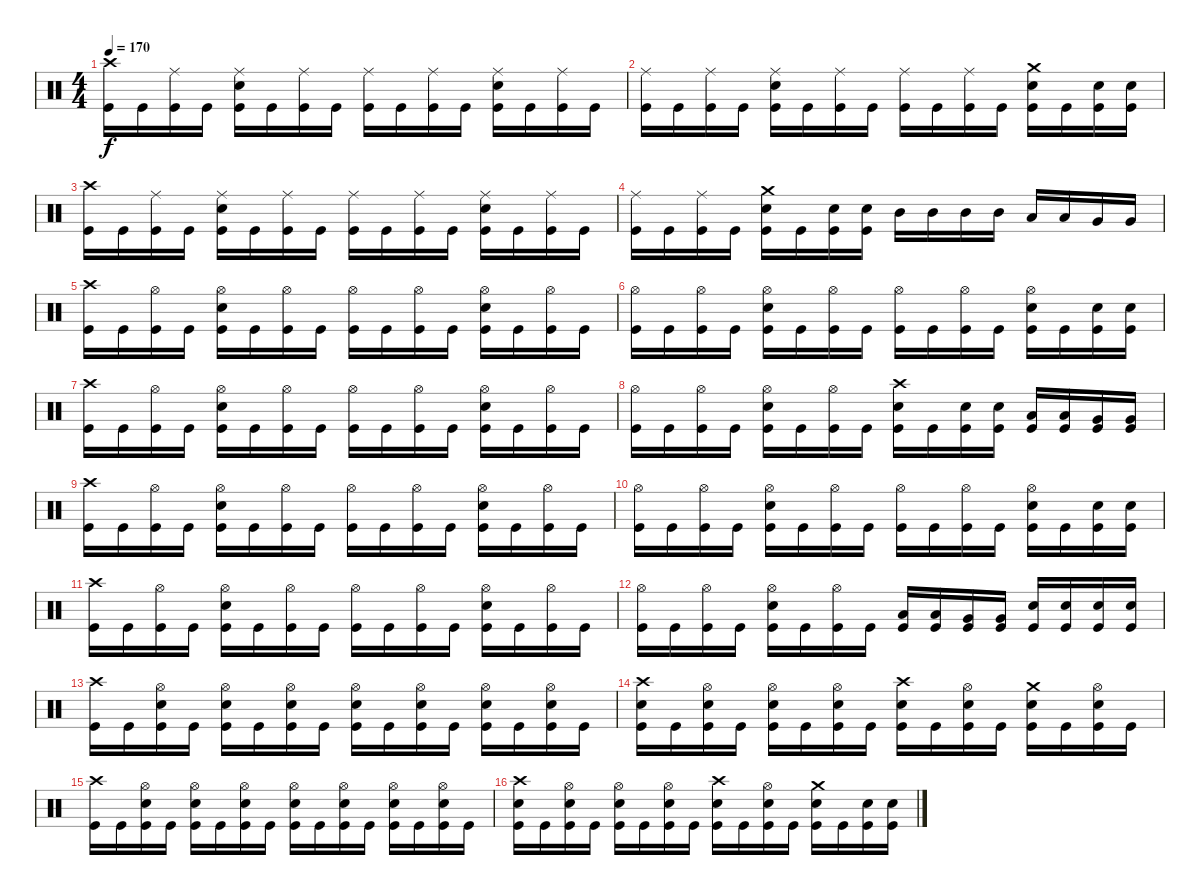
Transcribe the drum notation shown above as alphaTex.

\track "" {instrument percussion}
\staff {score}
\articulation defaults
\ts (4 4)
\tempo 170
\clef neutral
\ks c
("Crash high (hit)" "Kick (hit)").16{dy f} "Kick (hit)".16 ("Ride (middle)" "Kick (hit)").16 "Kick (hit)".16 ("Snare (hit) 2" "Ride (middle)" "Kick (hit)").16 "Kick (hit)".16 ("Ride (middle)" "Kick (hit)").16 "Kick (hit)".16 ("Ride (middle)" "Kick (hit)").16 "Kick (hit)".16 ("Ride (middle)" "Kick (hit)").16 "Kick (hit)".16 ("Snare (hit) 2" "Ride (middle)" "Kick (hit)").16 "Kick (hit)".16 ("Ride (middle)" "Kick (hit)").16 "Kick (hit)".16 |
("Ride (middle)" "Kick (hit)").16 "Kick (hit)".16 ("Ride (middle)" "Kick (hit)").16 "Kick (hit)".16 ("Snare (hit) 2" "Ride (middle)" "Kick (hit)").16 "Kick (hit)".16 ("Ride (middle)" "Kick (hit)").16 "Kick (hit)".16 ("Ride (middle)" "Kick (hit)").16 "Kick (hit)".16 ("Ride (middle)" "Kick (hit)").16 "Kick (hit)".16 ("Snare (hit) 2" "Crash medium (hit)" "Kick (hit)").16 "Kick (hit)".16 ("Snare (hit) 2" "Kick (hit)").16 ("Snare (hit) 2" "Kick (hit)").16 |
("Crash high (hit)" "Kick (hit)").16 "Kick (hit)".16 ("Ride (middle)" "Kick (hit)").16 "Kick (hit)".16 ("Snare (hit) 2" "Ride (middle)" "Kick (hit)").16 "Kick (hit)".16 ("Ride (middle)" "Kick (hit)").16 "Kick (hit)".16 ("Ride (middle)" "Kick (hit)").16 "Kick (hit)".16 ("Ride (middle)" "Kick (hit)").16 "Kick (hit)".16 ("Snare (hit) 2" "Ride (middle)" "Kick (hit)").16 "Kick (hit)".16 ("Ride (middle)" "Kick (hit)").16 "Kick (hit)".16 |
("Ride (middle)" "Kick (hit)").16 "Kick (hit)".16 ("Ride (middle)" "Kick (hit)").16 "Kick (hit)".16 ("Snare (hit) 2" "Crash medium (hit)" "Kick (hit)").16 "Kick (hit)".16 ("Snare (hit) 2" "Kick (hit)").16 ("Snare (hit) 2" "Kick (hit)").16 "Mid Tom (hit)".16 "Mid Tom (hit)".16 "Mid Tom (hit)".16 "Mid Tom (hit)".16 "Low Tom (hit)".16 "Low Tom (hit)".16 "Very Low Tom (hit)".16 "Very Low Tom (hit)".16 |
("Crash high (hit)" "Kick (hit)").16 "Kick (hit)".16 ("Hi-Hat (open)" "Kick (hit)").16 "Kick (hit)".16 ("Hi-Hat (open)" "Snare (hit) 2" "Kick (hit)").16 "Kick (hit)".16 ("Hi-Hat (open)" "Kick (hit)").16 "Kick (hit)".16 ("Hi-Hat (open)" "Kick (hit)").16 "Kick (hit)".16 ("Hi-Hat (open)" "Kick (hit)").16 "Kick (hit)".16 ("Snare (hit) 2" "Hi-Hat (open)" "Kick (hit)").16 "Kick (hit)".16 ("Hi-Hat (open)" "Kick (hit)").16 "Kick (hit)".16 |
("Hi-Hat (open)" "Kick (hit)").16 "Kick (hit)".16 ("Hi-Hat (open)" "Kick (hit)").16 "Kick (hit)".16 ("Snare (hit) 2" "Hi-Hat (open)" "Kick (hit)").16 "Kick (hit)".16 ("Hi-Hat (open)" "Kick (hit)").16 "Kick (hit)".16 ("Hi-Hat (open)" "Kick (hit)").16 "Kick (hit)".16 ("Hi-Hat (open)" "Kick (hit)").16 "Kick (hit)".16 ("Snare (hit) 2" "Hi-Hat (open)" "Kick (hit)").16 "Kick (hit)".16 ("Snare (hit) 2" "Kick (hit)").16 ("Snare (hit) 2" "Kick (hit)").16 |
("Crash high (hit)" "Kick (hit)").16 "Kick (hit)".16 ("Hi-Hat (open)" "Kick (hit)").16 "Kick (hit)".16 ("Hi-Hat (open)" "Snare (hit) 2" "Kick (hit)").16 "Kick (hit)".16 ("Hi-Hat (open)" "Kick (hit)").16 "Kick (hit)".16 ("Hi-Hat (open)" "Kick (hit)").16 "Kick (hit)".16 ("Hi-Hat (open)" "Kick (hit)").16 "Kick (hit)".16 ("Snare (hit) 2" "Hi-Hat (open)" "Kick (hit)").16 "Kick (hit)".16 ("Hi-Hat (open)" "Kick (hit)").16 "Kick (hit)".16 |
("Hi-Hat (open)" "Kick (hit)").16 "Kick (hit)".16 ("Hi-Hat (open)" "Kick (hit)").16 "Kick (hit)".16 ("Hi-Hat (open)" "Snare (hit) 2" "Kick (hit)").16 "Kick (hit)".16 ("Hi-Hat (open)" "Kick (hit)").16 "Kick (hit)".16 ("Kick (hit)" "Crash high (hit)" "Snare (hit) 2").16 "Kick (hit)".16 ("Kick (hit)" "Snare (hit) 2").16 ("Snare (hit) 2" "Kick (hit)").16 ("Low Tom (hit)" "Kick (hit)").16 ("Low Tom (hit)" "Kick (hit)").16 ("Kick (hit)" "Very Low Tom (hit)").16 ("Very Low Tom (hit)" "Kick (hit)").16 |
("Crash high (hit)" "Kick (hit)").16 "Kick (hit)".16 ("Hi-Hat (open)" "Kick (hit)").16 "Kick (hit)".16 ("Hi-Hat (open)" "Snare (hit) 2" "Kick (hit)").16 "Kick (hit)".16 ("Hi-Hat (open)" "Kick (hit)").16 "Kick (hit)".16 ("Hi-Hat (open)" "Kick (hit)").16 "Kick (hit)".16 ("Hi-Hat (open)" "Kick (hit)").16 "Kick (hit)".16 ("Snare (hit) 2" "Hi-Hat (open)" "Kick (hit)").16 "Kick (hit)".16 ("Hi-Hat (open)" "Kick (hit)").16 "Kick (hit)".16 |
("Hi-Hat (open)" "Kick (hit)").16 "Kick (hit)".16 ("Hi-Hat (open)" "Kick (hit)").16 "Kick (hit)".16 ("Snare (hit) 2" "Hi-Hat (open)" "Kick (hit)").16 "Kick (hit)".16 ("Hi-Hat (open)" "Kick (hit)").16 "Kick (hit)".16 ("Hi-Hat (open)" "Kick (hit)").16 "Kick (hit)".16 ("Hi-Hat (open)" "Kick (hit)").16 "Kick (hit)".16 ("Snare (hit) 2" "Hi-Hat (open)" "Kick (hit)").16 "Kick (hit)".16 ("Snare (hit) 2" "Kick (hit)").16 ("Snare (hit) 2" "Kick (hit)").16 |
("Crash high (hit)" "Kick (hit)").16 "Kick (hit)".16 ("Hi-Hat (open)" "Kick (hit)").16 "Kick (hit)".16 ("Hi-Hat (open)" "Snare (hit) 2" "Kick (hit)").16 "Kick (hit)".16 ("Hi-Hat (open)" "Kick (hit)").16 "Kick (hit)".16 ("Hi-Hat (open)" "Kick (hit)").16 "Kick (hit)".16 ("Hi-Hat (open)" "Kick (hit)").16 "Kick (hit)".16 ("Snare (hit) 2" "Hi-Hat (open)" "Kick (hit)").16 "Kick (hit)".16 ("Hi-Hat (open)" "Kick (hit)").16 "Kick (hit)".16 |
("Hi-Hat (open)" "Kick (hit)").16 "Kick (hit)".16 ("Hi-Hat (open)" "Kick (hit)").16 "Kick (hit)".16 ("Hi-Hat (open)" "Snare (hit) 2" "Kick (hit)").16 "Kick (hit)".16 ("Hi-Hat (open)" "Kick (hit)").16 "Kick (hit)".16 ("Low Tom (hit)" "Kick (hit)").16 ("Low Tom (hit)" "Kick (hit)").16 ("Very Low Tom (hit)" "Kick (hit)").16 ("Very Low Tom (hit)" "Kick (hit)").16 ("Snare (hit) 2" "Kick (hit)").16 ("Snare (hit) 2" "Kick (hit)").16 ("Snare (hit) 2" "Kick (hit)").16 ("Snare (hit) 2" "Kick (hit)").16 |
("Kick (hit)" "Crash high (hit)").16 "Kick (hit)".16 ("Snare (hit) 2" "Hi-Hat (open)" "Kick (hit)").16 "Kick (hit)".16 ("Kick (hit)" "Hi-Hat (open)" "Snare (hit) 2").16 "Kick (hit)".16 ("Hi-Hat (open)" "Snare (hit) 2" "Kick (hit)").16 "Kick (hit)".16 ("Hi-Hat (open)" "Snare (hit) 2" "Kick (hit)").16 "Kick (hit)".16 ("Hi-Hat (open)" "Snare (hit) 2" "Kick (hit)").16 "Kick (hit)".16 ("Hi-Hat (open)" "Snare (hit) 2" "Kick (hit)").16 "Kick (hit)".16 ("Hi-Hat (open)" "Snare (hit) 2" "Kick (hit)").16 "Kick (hit)".16 |
("Crash high (hit)" "Snare (hit) 2" "Kick (hit)").16 "Kick (hit)".16 ("Hi-Hat (open)" "Snare (hit) 2" "Kick (hit)").16 "Kick (hit)".16 ("Kick (hit)" "Hi-Hat (open)" "Snare (hit) 2").16 "Kick (hit)".16 ("Kick (hit)" "Snare (hit) 2" "Hi-Hat (open)").16 "Kick (hit)".16 ("Crash high (hit)" "Snare (hit) 2" "Kick (hit)").16 "Kick (hit)".16 ("Snare (hit) 2" "Hi-Hat (open)" "Kick (hit)").16 "Kick (hit)".16 ("Kick (hit)" "Crash medium (hit)" "Snare (hit) 2").16 "Kick (hit)".16 ("Kick (hit)" "Hi-Hat (open)" "Snare (hit) 2").16 "Kick (hit)".16 |
("Kick (hit)" "Crash high (hit)").16 "Kick (hit)".16 ("Kick (hit)" "Snare (hit) 2" "Hi-Hat (open)").16 "Kick (hit)".16 ("Kick (hit)" "Hi-Hat (open)" "Snare (hit) 2").16 "Kick (hit)".16 ("Kick (hit)" "Hi-Hat (open)" "Snare (hit) 2").16 "Kick (hit)".16 ("Hi-Hat (open)" "Snare (hit) 2" "Kick (hit)").16 "Kick (hit)".16 ("Hi-Hat (open)" "Snare (hit) 2" "Kick (hit)").16 "Kick (hit)".16 ("Hi-Hat (open)" "Snare (hit) 2" "Kick (hit)").16 "Kick (hit)".16 ("Hi-Hat (open)" "Snare (hit) 2" "Kick (hit)").16 "Kick (hit)".16 |
("Crash high (hit)" "Snare (hit) 2" "Kick (hit)").16 "Kick (hit)".16 ("Hi-Hat (open)" "Snare (hit) 2" "Kick (hit)").16 "Kick (hit)".16 ("Kick (hit)" "Hi-Hat (open)" "Snare (hit) 2").16 "Kick (hit)".16 ("Kick (hit)" "Snare (hit) 2" "Hi-Hat (open)").16 "Kick (hit)".16 ("Crash high (hit)" "Snare (hit) 2" "Kick (hit)").16 "Kick (hit)".16 ("Snare (hit) 2" "Hi-Hat (open)" "Kick (hit)").16 "Kick (hit)".16 ("Kick (hit)" "Crash medium (hit)" "Snare (hit) 2").16 "Kick (hit)".16 ("Kick (hit)" "Snare (hit) 2").16 ("Snare (hit) 2" "Kick (hit)").16
